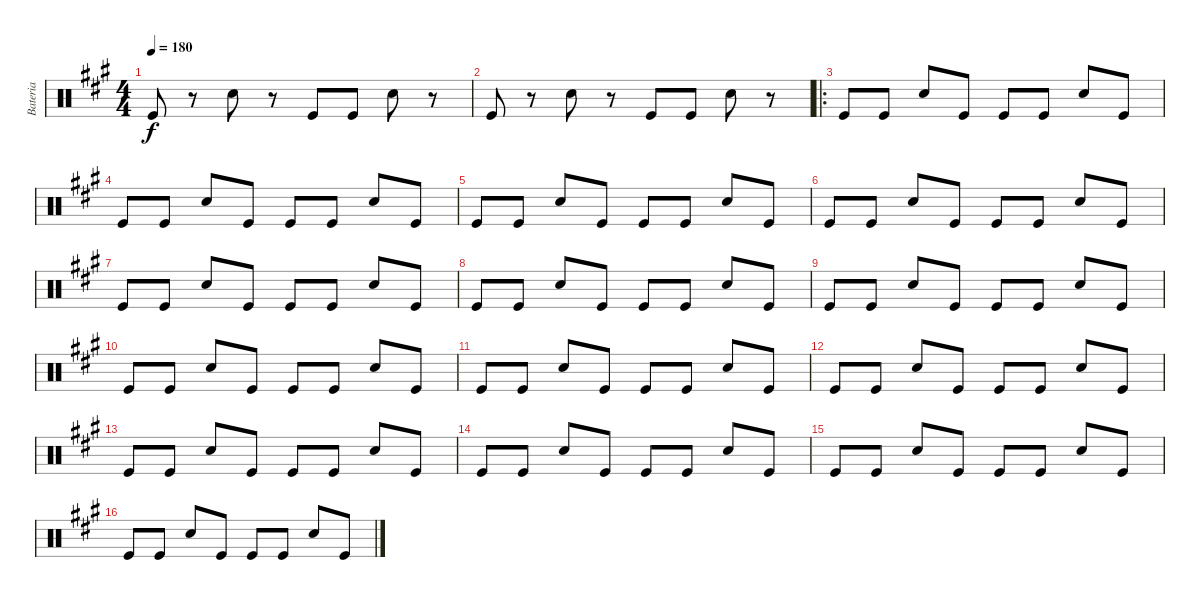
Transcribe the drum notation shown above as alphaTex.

\track ("Bateria" "Bateria") {instrument percussion}
\staff {score}
\articulation defaults
\ts (4 4)
\tempo 180
\clef neutral
\ks a "Kick (hit)".8{dy f}
r.8 "Electric Snare (hit)".8 r.8 "Kick (hit)".8 "Kick (hit)".8 "Electric Snare (hit)".8 r.8 |
"Kick (hit)".8 r.8 "Electric Snare (hit)".8 r.8 "Kick (hit)".8 "Kick (hit)".8 "Electric Snare (hit)".8 r.8 |
\ro "Kick (hit)".8 "Kick (hit)".8 "Electric Snare (hit)".8 "Kick (hit)".8 "Kick (hit)".8 "Kick (hit)".8 "Electric Snare (hit)".8 "Kick (hit)".8
|
"Kick (hit)".8 "Kick (hit)".8 "Electric Snare (hit)".8 "Kick (hit)".8 "Kick (hit)".8 "Kick (hit)".8 "Electric Snare (hit)".8 "Kick (hit)".8 |
"Kick (hit)".8 "Kick (hit)".8 "Electric Snare (hit)".8 "Kick (hit)".8 "Kick (hit)".8 "Kick (hit)".8 "Electric Snare (hit)".8 "Kick (hit)".8 |
"Kick (hit)".8 "Kick (hit)".8 "Electric Snare (hit)".8 "Kick (hit)".8 "Kick (hit)".8 "Kick (hit)".8 "Electric Snare (hit)".8 "Kick (hit)".8 |
"Kick (hit)".8 "Kick (hit)".8 "Electric Snare (hit)".8 "Kick (hit)".8 "Kick (hit)".8 "Kick (hit)".8 "Electric Snare (hit)".8 "Kick (hit)".8 |
"Kick (hit)".8 "Kick (hit)".8 "Electric Snare (hit)".8 "Kick (hit)".8 "Kick (hit)".8 "Kick (hit)".8 "Electric Snare (hit)".8 "Kick (hit)".8 |
"Kick (hit)".8 "Kick (hit)".8 "Electric Snare (hit)".8 "Kick (hit)".8 "Kick (hit)".8 "Kick (hit)".8 "Electric Snare (hit)".8 "Kick (hit)".8 |
"Kick (hit)".8 "Kick (hit)".8 "Electric Snare (hit)".8 "Kick (hit)".8 "Kick (hit)".8 "Kick (hit)".8 "Electric Snare (hit)".8 "Kick (hit)".8 |
"Kick (hit)".8 "Kick (hit)".8 "Electric Snare (hit)".8 "Kick (hit)".8 "Kick (hit)".8 "Kick (hit)".8 "Electric Snare (hit)".8 "Kick (hit)".8 |
"Kick (hit)".8 "Kick (hit)".8 "Electric Snare (hit)".8 "Kick (hit)".8 "Kick (hit)".8 "Kick (hit)".8 "Electric Snare (hit)".8 "Kick (hit)".8 |
"Kick (hit)".8 "Kick (hit)".8 "Electric Snare (hit)".8 "Kick (hit)".8 "Kick (hit)".8 "Kick (hit)".8 "Electric Snare (hit)".8 "Kick (hit)".8 |
"Kick (hit)".8 "Kick (hit)".8 "Electric Snare (hit)".8 "Kick (hit)".8 "Kick (hit)".8 "Kick (hit)".8 "Electric Snare (hit)".8 "Kick (hit)".8 |
"Kick (hit)".8 "Kick (hit)".8 "Electric Snare (hit)".8 "Kick (hit)".8 "Kick (hit)".8 "Kick (hit)".8 "Electric Snare (hit)".8 "Kick (hit)".8 |
"Kick (hit)".8 "Kick (hit)".8 "Electric Snare (hit)".8 "Kick (hit)".8 "Kick (hit)".8 "Kick (hit)".8 "Electric Snare (hit)".8 "Kick (hit)".8
